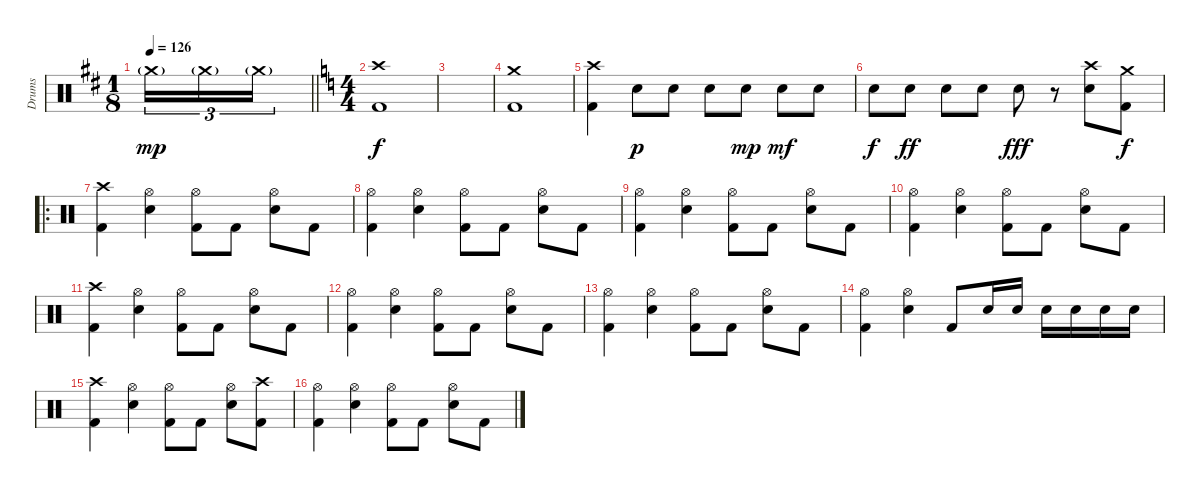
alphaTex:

\track ("Drums" "Drums") {instrument percussion}
\staff {score}
\articulation defaults
\ts (1 8)
\tempo 126
\clef neutral
\barLineRight lightlight
\ks d "Crash medium (hit)"{g}.16{tu (3 2) dy mp} "Crash medium (hit)"{g}.16{tu (3 2)} "Crash medium (hit)"{g}.16{tu (3 2)}
|
\ts (4 4)
\ks c
("Crash high (hit)" "Kick (hit) 2").1{dy f} |
|
("Crash medium (hit)" "Kick (hit) 2").1 |
("Crash high (hit)" "Kick (hit) 2").4 "Snare (hit) 2".8{dy p} "Snare (hit) 2".8 "Snare (hit) 2".8 "Snare (hit) 2".8{dy mp} "Snare (hit) 2".8{dy mf} "Snare (hit) 2".8 |
"Snare (hit) 2".8{dy f} "Snare (hit) 2".8{dy ff} "Snare (hit) 2".8 "Snare (hit) 2".8 "Snare (hit) 2".8{dy fff} r.8 ("Crash high (hit)" "Snare (hit) 2").8 ("Crash medium (hit)" "Kick (hit) 2").8{dy f} |
\ro
("Crash high (hit)" "Kick (hit) 2").4 ("Hi-Hat (open)" "Snare (hit) 2").4 ("Hi-Hat (open)" "Kick (hit) 2").8 "Kick (hit) 2".8 ("Hi-Hat (open)" "Snare (hit) 2").8 "Kick (hit) 2".8 |
("Hi-Hat (open)" "Kick (hit) 2").4 ("Hi-Hat (open)" "Snare (hit) 2").4 ("Hi-Hat (open)" "Kick (hit) 2").8 "Kick (hit) 2".8 ("Hi-Hat (open)" "Snare (hit) 2").8 "Kick (hit) 2".8 |
("Hi-Hat (open)" "Kick (hit) 2").4 ("Hi-Hat (open)" "Snare (hit) 2").4 ("Hi-Hat (open)" "Kick (hit) 2").8 "Kick (hit) 2".8 ("Hi-Hat (open)" "Snare (hit) 2").8 "Kick (hit) 2".8 |
("Hi-Hat (open)" "Kick (hit) 2").4 ("Hi-Hat (open)" "Snare (hit) 2").4 ("Hi-Hat (open)" "Kick (hit) 2").8 "Kick (hit) 2".8 ("Hi-Hat (open)" "Snare (hit) 2").8 "Kick (hit) 2".8 |
("Crash high (hit)" "Kick (hit) 2").4 ("Hi-Hat (open)" "Snare (hit) 2").4 ("Hi-Hat (open)" "Kick (hit) 2").8 "Kick (hit) 2".8 ("Hi-Hat (open)" "Snare (hit) 2").8 "Kick (hit) 2".8 |
("Hi-Hat (open)" "Kick (hit) 2").4 ("Hi-Hat (open)" "Snare (hit) 2").4 ("Hi-Hat (open)" "Kick (hit) 2").8 "Kick (hit) 2".8 ("Hi-Hat (open)" "Snare (hit) 2").8 "Kick (hit) 2".8 |
("Hi-Hat (open)" "Kick (hit) 2").4 ("Hi-Hat (open)" "Snare (hit) 2").4 ("Hi-Hat (open)" "Kick (hit) 2").8 "Kick (hit) 2".8 ("Hi-Hat (open)" "Snare (hit) 2").8 "Kick (hit) 2".8 |
("Hi-Hat (open)" "Kick (hit) 2").4 ("Hi-Hat (open)" "Snare (hit) 2").4 "Kick (hit) 2".8 "Snare (hit) 2".16 "Snare (hit) 2".16 "Snare (hit) 2".16 "Snare (hit) 2".16 "Snare (hit) 2".16 "Snare (hit) 2".16 |
("Crash high (hit)" "Kick (hit) 2").4 ("Hi-Hat (open)" "Snare (hit) 2").4 ("Hi-Hat (open)" "Kick (hit) 2").8 "Kick (hit) 2".8 ("Hi-Hat (open)" "Snare (hit) 2").8 ("Crash high (hit)" "Kick (hit) 2").8 |
("Hi-Hat (open)" "Kick (hit) 2").4 ("Hi-Hat (open)" "Snare (hit) 2").4 ("Hi-Hat (open)" "Kick (hit) 2").8 "Kick (hit) 2".8 ("Hi-Hat (open)" "Snare (hit) 2").8 "Kick (hit) 2".8
